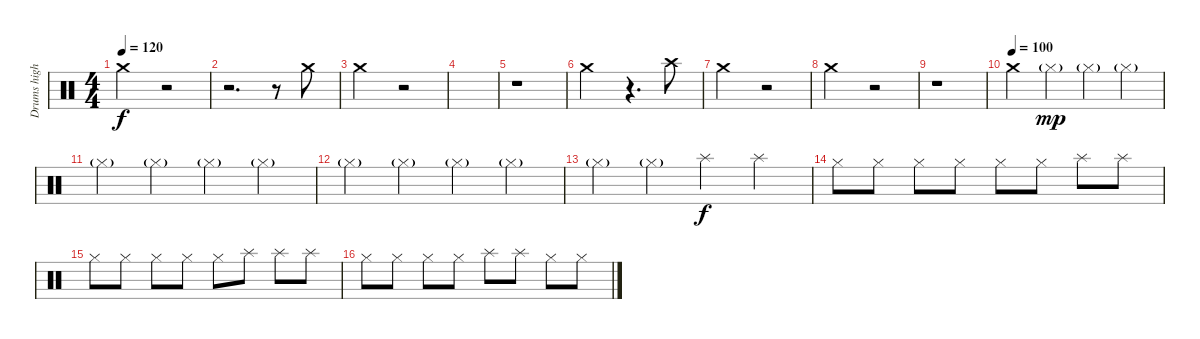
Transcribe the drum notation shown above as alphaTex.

\track ("Drums high" "Drums high") {instrument percussion}
\staff {score}
\articulation defaults
\ts (4 4)
\tempo 120
\clef neutral
\ks c "Crash medium (hit)".2{dy f}
r.2 |
r.2{d} r.8 "Crash medium (hit)".8 |
"Crash medium (hit)".2 r.2 |
|
r.1 |
"Crash medium (hit)".2 r.4{d} "Crash high (hit)".8 |
"Crash medium (hit)".2 r.2 |
"Crash medium (hit)".2 r.2 |
r.1 |
\tempo (100)
"Crash medium (hit)".4 "Hi-Hat (closed)"{g}.4{dy mp} "Hi-Hat (closed)"{g}.4 "Hi-Hat (closed)"{g}.4 |
"Hi-Hat (closed)"{g}.4 "Hi-Hat (closed)"{g}.4 "Hi-Hat (closed)"{g}.4 "Hi-Hat (closed)"{g}.4 |
"Hi-Hat (closed)"{g}.4 "Hi-Hat (closed)"{g}.4 "Hi-Hat (closed)"{g}.4 "Hi-Hat (closed)"{g}.4 |
"Hi-Hat (closed)"{g}.4 "Hi-Hat (closed)"{g}.4 "Splash (hit)".4{dy f} "Splash (hit)".4 |
"Hi-Hat (closed)".8 "Hi-Hat (closed)".8 "Hi-Hat (closed)".8 "Hi-Hat (closed)".8 "Hi-Hat (closed)".8 "Hi-Hat (closed)".8 "Splash (hit)".8 "Splash (hit)".8 |
"Hi-Hat (closed)".8 "Hi-Hat (closed)".8 "Hi-Hat (closed)".8 "Hi-Hat (closed)".8 "Hi-Hat (closed)".8 "Splash (hit)".8 "Splash (hit)".8 "Splash (hit)".8 |
"Hi-Hat (closed)".8 "Hi-Hat (closed)".8 "Hi-Hat (closed)".8 "Hi-Hat (closed)".8 "Splash (hit)".8 "Splash (hit)".8 "Hi-Hat (closed)".8 "Hi-Hat (closed)".8
